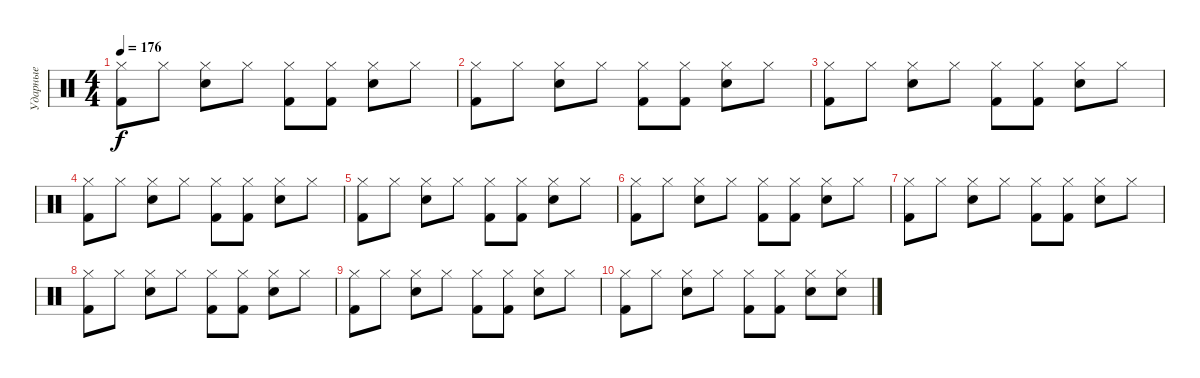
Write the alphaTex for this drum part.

\track ("Ударные" "Ударные") {instrument percussion}
\staff {score}
\articulation defaults
\ts (4 4)
\tempo 176
\clef neutral
\ks c
("Hi-Hat (closed)" "Kick (hit) 2").8{dy f} "Hi-Hat (closed)".8 ("Hi-Hat (closed)" "Snare (hit) 2").8 "Hi-Hat (closed)".8 ("Hi-Hat (closed)" "Kick (hit) 2").8 ("Hi-Hat (closed)" "Kick (hit) 2").8 ("Hi-Hat (closed)" "Snare (hit) 2").8 "Hi-Hat (closed)".8 |
("Hi-Hat (closed)" "Kick (hit) 2").8 "Hi-Hat (closed)".8 ("Hi-Hat (closed)" "Snare (hit) 2").8 "Hi-Hat (closed)".8 ("Hi-Hat (closed)" "Kick (hit) 2").8 ("Hi-Hat (closed)" "Kick (hit) 2").8 ("Hi-Hat (closed)" "Snare (hit) 2").8 "Hi-Hat (closed)".8 |
("Hi-Hat (closed)" "Kick (hit) 2").8 "Hi-Hat (closed)".8 ("Hi-Hat (closed)" "Snare (hit) 2").8 "Hi-Hat (closed)".8 ("Hi-Hat (closed)" "Kick (hit) 2").8 ("Hi-Hat (closed)" "Kick (hit) 2").8 ("Hi-Hat (closed)" "Snare (hit) 2").8 "Hi-Hat (closed)".8 |
("Hi-Hat (closed)" "Kick (hit) 2").8 "Hi-Hat (closed)".8 ("Hi-Hat (closed)" "Snare (hit) 2").8 "Hi-Hat (closed)".8 ("Hi-Hat (closed)" "Kick (hit) 2").8 ("Hi-Hat (closed)" "Kick (hit) 2").8 ("Hi-Hat (closed)" "Snare (hit) 2").8 "Hi-Hat (closed)".8 |
("Hi-Hat (closed)" "Kick (hit) 2").8 "Hi-Hat (closed)".8 ("Hi-Hat (closed)" "Snare (hit) 2").8 "Hi-Hat (closed)".8 ("Hi-Hat (closed)" "Kick (hit) 2").8 ("Hi-Hat (closed)" "Kick (hit) 2").8 ("Hi-Hat (closed)" "Snare (hit) 2").8 "Hi-Hat (closed)".8 |
("Hi-Hat (closed)" "Kick (hit) 2").8 "Hi-Hat (closed)".8 ("Hi-Hat (closed)" "Snare (hit) 2").8 "Hi-Hat (closed)".8 ("Hi-Hat (closed)" "Kick (hit) 2").8 ("Hi-Hat (closed)" "Kick (hit) 2").8 ("Hi-Hat (closed)" "Snare (hit) 2").8 "Hi-Hat (closed)".8 |
("Hi-Hat (closed)" "Kick (hit) 2").8 "Hi-Hat (closed)".8 ("Hi-Hat (closed)" "Snare (hit) 2").8 "Hi-Hat (closed)".8 ("Hi-Hat (closed)" "Kick (hit) 2").8 ("Hi-Hat (closed)" "Kick (hit) 2").8 ("Hi-Hat (closed)" "Snare (hit) 2").8 "Hi-Hat (closed)".8 |
("Hi-Hat (closed)" "Kick (hit) 2").8 "Hi-Hat (closed)".8 ("Hi-Hat (closed)" "Snare (hit) 2").8 "Hi-Hat (closed)".8 ("Hi-Hat (closed)" "Kick (hit) 2").8 ("Hi-Hat (closed)" "Kick (hit) 2").8 ("Hi-Hat (closed)" "Snare (hit) 2").8 "Hi-Hat (closed)".8 |
("Hi-Hat (closed)" "Kick (hit) 2").8 "Hi-Hat (closed)".8 ("Hi-Hat (closed)" "Snare (hit) 2").8 "Hi-Hat (closed)".8 ("Hi-Hat (closed)" "Kick (hit) 2").8 ("Hi-Hat (closed)" "Kick (hit) 2").8 ("Hi-Hat (closed)" "Snare (hit) 2").8 "Hi-Hat (closed)".8 |
("Hi-Hat (closed)" "Kick (hit) 2").8 "Hi-Hat (closed)".8 ("Hi-Hat (closed)" "Snare (hit) 2").8 "Hi-Hat (closed)".8 ("Hi-Hat (closed)" "Kick (hit) 2").8 ("Hi-Hat (closed)" "Kick (hit) 2").8 ("Hi-Hat (closed)" "Snare (hit) 2").8 ("Hi-Hat (closed)" "Snare (hit) 2").8
